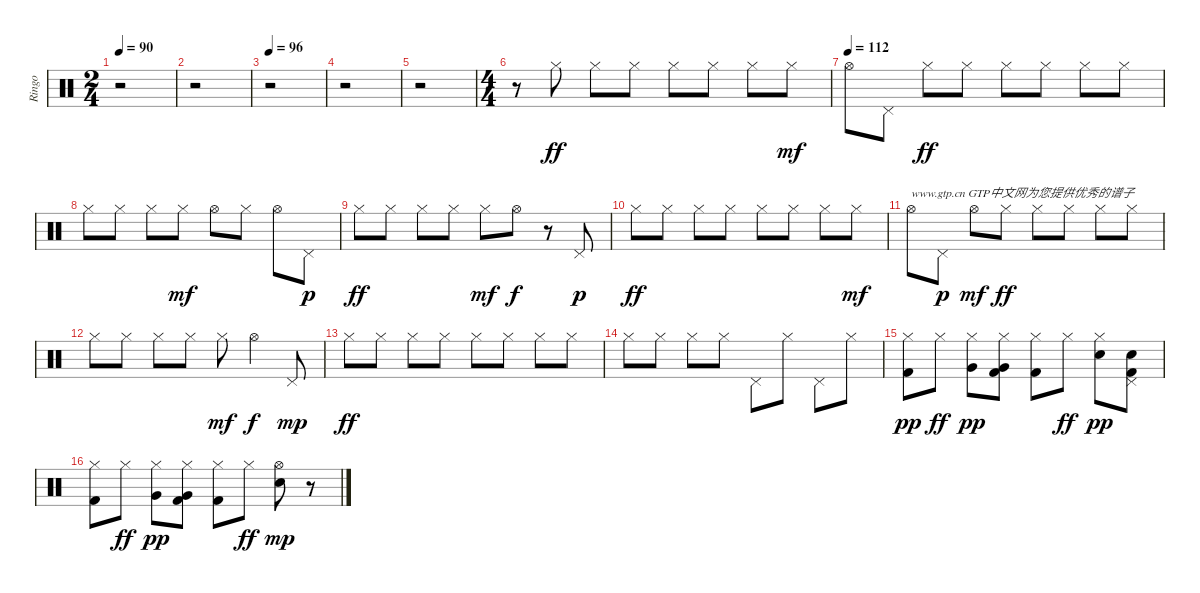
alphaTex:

\track ("Ringo" "Ringo") {instrument percussion}
\staff {score}
\articulation defaults
\ts (2 4)
\tempo 90
\clef neutral
\ks c
r.2{dy ff} |
r.2 |
\tempo 96
r.2 |
r.2 |
r.2 |
\ts (4 4)
r.8 "Hi-Hat (closed)".8 "Hi-Hat (closed)".8 "Hi-Hat (closed)".8 "Hi-Hat (closed)".8 "Hi-Hat (closed)".8 "Hi-Hat (closed)".8 "Hi-Hat (closed)".8{dy mf} |
\tempo (112)
"Hi-Hat (open)".8 "Pedal Hi-Hat (hit)".8 "Hi-Hat (closed)".8{dy ff} "Hi-Hat (closed)".8 "Hi-Hat (closed)".8 "Hi-Hat (closed)".8 "Hi-Hat (closed)".8 "Hi-Hat (closed)".8 |
"Hi-Hat (closed)".8 "Hi-Hat (closed)".8 "Hi-Hat (closed)".8 "Hi-Hat (closed)".8{dy mf} "Hi-Hat (open)".8 "Hi-Hat (closed)".8 "Hi-Hat (open)".8 "Pedal Hi-Hat (hit)".8{dy p} |
"Hi-Hat (closed)".8{dy ff} "Hi-Hat (closed)".8 "Hi-Hat (closed)".8 "Hi-Hat (closed)".8 "Hi-Hat (closed)".8{dy mf} "Hi-Hat (open)".8{dy f} r.8 "Pedal Hi-Hat (hit)".8{dy p} |
"Hi-Hat (closed)".8{dy ff} "Hi-Hat (closed)".8 "Hi-Hat (closed)".8 "Hi-Hat (closed)".8 "Hi-Hat (closed)".8 "Hi-Hat (closed)".8 "Hi-Hat (closed)".8 "Hi-Hat (closed)".8{dy mf} |
"Hi-Hat (open)".8{txt "www.gtp.cn GTP中文网为您提供优秀的谱子"} "Pedal Hi-Hat (hit)".8{dy p} "Hi-Hat (open)".8{dy mf} "Hi-Hat (closed)".8{dy ff} "Hi-Hat (closed)".8 "Hi-Hat (closed)".8 "Hi-Hat (closed)".8 "Hi-Hat (closed)".8 |
"Hi-Hat (closed)".8 "Hi-Hat (closed)".8 "Hi-Hat (closed)".8 "Hi-Hat (closed)".8 "Hi-Hat (closed)".8{dy mf} "Hi-Hat (open)".4{dy f} "Pedal Hi-Hat (hit)".8{dy mp} |
"Hi-Hat (closed)".8{dy ff} "Hi-Hat (closed)".8 "Hi-Hat (closed)".8 "Hi-Hat (closed)".8 "Hi-Hat (closed)".8 "Hi-Hat (closed)".8 "Hi-Hat (closed)".8 "Hi-Hat (closed)".8 |
"Hi-Hat (closed)".8 "Hi-Hat (closed)".8 "Hi-Hat (closed)".8 "Hi-Hat (closed)".8 "Pedal Hi-Hat (hit)".8 "Hi-Hat (closed)".8 "Pedal Hi-Hat (hit)".8 "Hi-Hat (closed)".8 |
("Hi-Hat (closed)" "Kick (hit) 2").8{dy pp} "Hi-Hat (closed)".8{dy ff} ("Hi-Hat (closed)" "Very Low Tom (hit)").8{dy pp} ("Hi-Hat (closed)" "Very Low Tom (hit)" "Kick (hit) 2").8 ("Hi-Hat (closed)" "Kick (hit) 2").8 "Hi-Hat (closed)".8{dy ff} ("Hi-Hat (closed)" "Snare (hit) 2").8{dy pp} ("Pedal Hi-Hat (hit)" "Snare (hit) 2" "Kick (hit) 2").8 |
("Hi-Hat (closed)" "Kick (hit) 2").8 "Hi-Hat (closed)".8{dy ff} ("Hi-Hat (closed)" "Very Low Tom (hit)").8{dy pp} ("Hi-Hat (closed)" "Very Low Tom (hit)" "Kick (hit) 2").8 ("Hi-Hat (closed)" "Kick (hit) 2").8 "Hi-Hat (closed)".8{dy ff} ("Hi-Hat (open)" "Snare (hit) 2").8{dy mp} r.8
